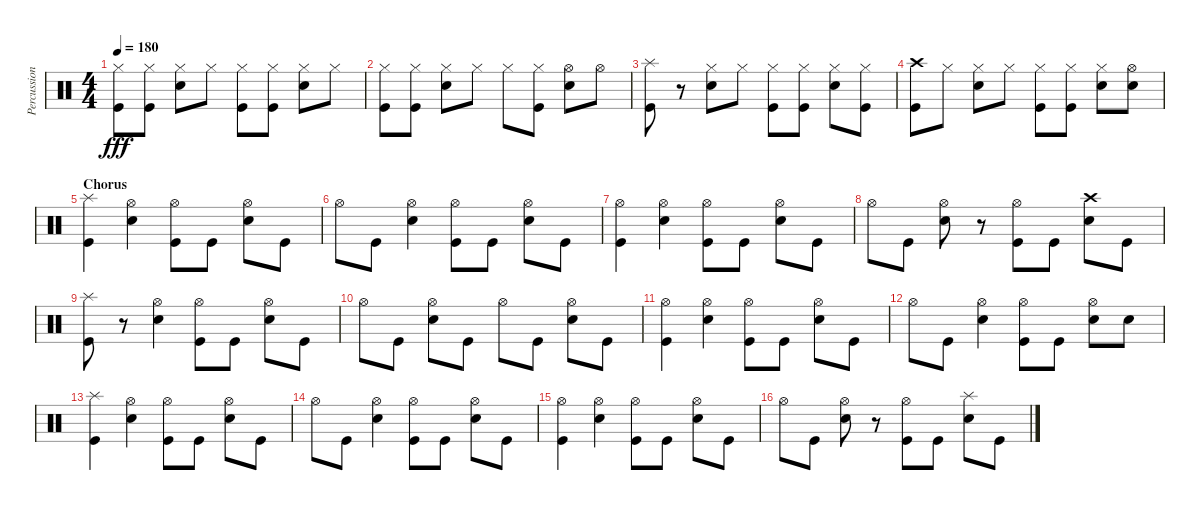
\track ("Percussion" "Percussion") {instrument percussion}
\staff {score}
\articulation defaults
\ts (4 4)
\tempo 180
\clef neutral
\ks c
("Hi-Hat (closed)" "Kick (hit)").8{dy fff} ("Hi-Hat (closed)" "Kick (hit)").8 ("Hi-Hat (closed)" "Snare (hit) 2").8 "Hi-Hat (closed)".8 ("Hi-Hat (closed)" "Kick (hit)").8 ("Hi-Hat (closed)" "Kick (hit)").8 ("Hi-Hat (closed)" "Snare (hit) 2").8 "Hi-Hat (closed)".8 |
("Hi-Hat (closed)" "Kick (hit)").8 ("Hi-Hat (closed)" "Kick (hit)").8 ("Hi-Hat (closed)" "Snare (hit) 2").8 "Hi-Hat (closed)".8 "Hi-Hat (closed)".8 ("Hi-Hat (closed)" "Kick (hit)").8 ("Hi-Hat (open)" "Snare (hit) 2").8 "Hi-Hat (open)".8 |
("Splash (hit)" "Kick (hit)").8 r.8 ("Hi-Hat (closed)" "Snare (hit) 2").8 "Hi-Hat (closed)".8 ("Hi-Hat (closed)" "Kick (hit)").8 ("Hi-Hat (closed)" "Kick (hit)").8 ("Hi-Hat (closed)" "Snare (hit) 2").8 ("Hi-Hat (closed)" "Kick (hit)").8 |
("Crash high (hit)" "Kick (hit)").8 "Hi-Hat (closed)".8 ("Hi-Hat (closed)" "Snare (hit) 2").8 "Hi-Hat (closed)".8 ("Hi-Hat (closed)" "Kick (hit)").8 ("Hi-Hat (closed)" "Kick (hit)").8 ("Hi-Hat (closed)" "Snare (hit) 2").8 ("Hi-Hat (open)" "Snare (hit) 2").8 |
\section ("" "Chorus")
("Splash (hit)" "Kick (hit)").4 ("Hi-Hat (open)" "Snare (hit) 2").4 ("Hi-Hat (open)" "Kick (hit)").8 "Kick (hit)".8 ("Hi-Hat (open)" "Snare (hit) 2").8 "Kick (hit)".8 |
"Hi-Hat (open)".8 "Kick (hit)".8 ("Hi-Hat (open)" "Snare (hit) 2").4 ("Hi-Hat (open)" "Kick (hit)").8 "Kick (hit)".8 ("Hi-Hat (open)" "Snare (hit) 2").8 "Kick (hit)".8 |
("Hi-Hat (open)" "Kick (hit)").4 ("Hi-Hat (open)" "Snare (hit) 2").4 ("Hi-Hat (open)" "Kick (hit)").8 "Kick (hit)".8 ("Hi-Hat (open)" "Snare (hit) 2").8 "Kick (hit)".8 |
"Hi-Hat (open)".8 "Kick (hit)".8 ("Hi-Hat (open)" "Snare (hit) 2").8 r.8 ("Hi-Hat (open)" "Kick (hit)").8 "Kick (hit)".8 ("Crash high (hit)" "Snare (hit) 2").8 "Kick (hit)".8 |
("Splash (hit)" "Kick (hit)").8 r.8 ("Hi-Hat (open)" "Snare (hit) 2").4 ("Hi-Hat (open)" "Kick (hit)").8 "Kick (hit)".8 ("Hi-Hat (open)" "Snare (hit) 2").8 "Kick (hit)".8 |
"Hi-Hat (open)".8 "Kick (hit)".8 ("Hi-Hat (open)" "Snare (hit) 2").8 "Kick (hit)".8 "Hi-Hat (open)".8 "Kick (hit)".8 ("Hi-Hat (open)" "Snare (hit) 2").8 "Kick (hit)".8 |
("Hi-Hat (open)" "Kick (hit)").4 ("Hi-Hat (open)" "Snare (hit) 2").4 ("Hi-Hat (open)" "Kick (hit)").8 "Kick (hit)".8 ("Hi-Hat (open)" "Snare (hit) 2").8 "Kick (hit)".8 |
"Hi-Hat (open)".8 "Kick (hit)".8 ("Hi-Hat (open)" "Snare (hit) 2").4 ("Hi-Hat (open)" "Kick (hit)").8 "Kick (hit)".8 ("Hi-Hat (open)" "Snare (hit) 2").8 "Snare (hit) 2".8 |
("Splash (hit)" "Kick (hit)").4 ("Hi-Hat (open)" "Snare (hit) 2").4 ("Hi-Hat (open)" "Kick (hit)").8 "Kick (hit)".8 ("Hi-Hat (open)" "Snare (hit) 2").8 "Kick (hit)".8 |
"Hi-Hat (open)".8 "Kick (hit)".8 ("Hi-Hat (open)" "Snare (hit) 2").4 ("Hi-Hat (open)" "Kick (hit)").8 "Kick (hit)".8 ("Hi-Hat (open)" "Snare (hit) 2").8 "Kick (hit)".8 |
("Hi-Hat (open)" "Kick (hit)").4 ("Hi-Hat (open)" "Snare (hit) 2").4 ("Hi-Hat (open)" "Kick (hit)").8 "Kick (hit)".8 ("Hi-Hat (open)" "Snare (hit) 2").8 "Kick (hit)".8 |
"Hi-Hat (open)".8 "Kick (hit)".8 ("Hi-Hat (open)" "Snare (hit) 2").8 r.8 ("Hi-Hat (open)" "Kick (hit)").8 "Kick (hit)".8 ("Splash (hit)" "Snare (hit) 2").8 "Kick (hit)".8
